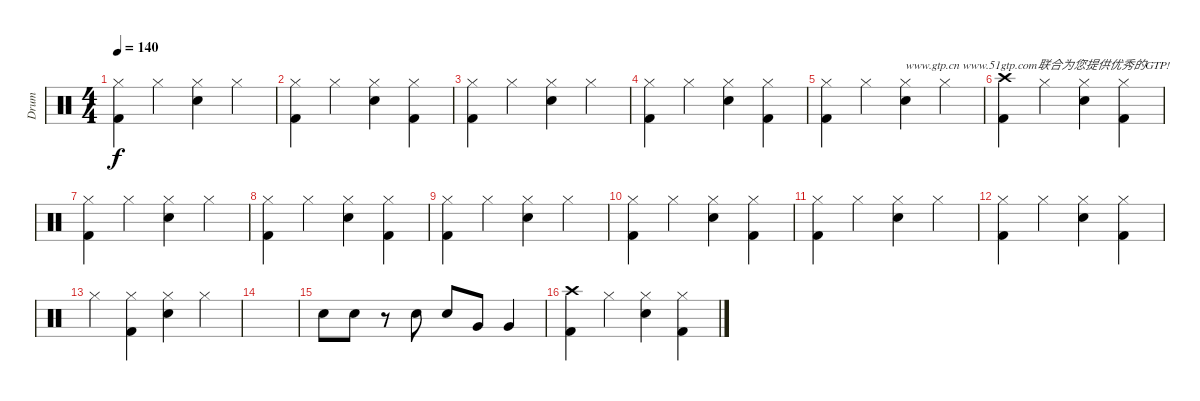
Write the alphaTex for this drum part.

\track ("Drum" "Drum") {instrument percussion}
\staff {score}
\articulation defaults
\ts (4 4)
\tempo 140
\clef neutral
\ks c
("Hi-Hat (closed)" "Kick (hit) 2").4{dy f} "Hi-Hat (closed)".4 ("Hi-Hat (closed)" "Electric Snare (hit)").4 "Hi-Hat (closed)".4 |
("Hi-Hat (closed)" "Kick (hit) 2").4 "Hi-Hat (closed)".4 ("Hi-Hat (closed)" "Electric Snare (hit)").4 ("Hi-Hat (closed)" "Kick (hit) 2").4 |
("Hi-Hat (closed)" "Kick (hit) 2").4 "Hi-Hat (closed)".4 ("Hi-Hat (closed)" "Electric Snare (hit)").4 "Hi-Hat (closed)".4 |
("Hi-Hat (closed)" "Kick (hit) 2").4 "Hi-Hat (closed)".4 ("Hi-Hat (closed)" "Electric Snare (hit)").4 ("Hi-Hat (closed)" "Kick (hit) 2").4 |
("Hi-Hat (closed)" "Kick (hit) 2").4 "Hi-Hat (closed)".4 ("Hi-Hat (closed)" "Electric Snare (hit)").4{txt "www.gtp.cn www.51gtp.com联合为您提供优秀的GTP!"} "Hi-Hat (closed)".4 |
("Crash high (hit)" "Kick (hit) 2").4 "Hi-Hat (closed)".4 ("Hi-Hat (closed)" "Electric Snare (hit)").4 ("Hi-Hat (closed)" "Kick (hit) 2").4 |
("Hi-Hat (closed)" "Kick (hit) 2").4 "Hi-Hat (closed)".4 ("Hi-Hat (closed)" "Electric Snare (hit)").4 "Hi-Hat (closed)".4 |
("Hi-Hat (closed)" "Kick (hit) 2").4 "Hi-Hat (closed)".4 ("Hi-Hat (closed)" "Electric Snare (hit)").4 ("Hi-Hat (closed)" "Kick (hit) 2").4 |
("Hi-Hat (closed)" "Kick (hit) 2").4 "Hi-Hat (closed)".4 ("Hi-Hat (closed)" "Electric Snare (hit)").4 "Hi-Hat (closed)".4 |
("Hi-Hat (closed)" "Kick (hit) 2").4 "Hi-Hat (closed)".4 ("Hi-Hat (closed)" "Electric Snare (hit)").4 ("Hi-Hat (closed)" "Kick (hit) 2").4 |
("Hi-Hat (closed)" "Kick (hit) 2").4 "Hi-Hat (closed)".4 ("Hi-Hat (closed)" "Electric Snare (hit)").4 "Hi-Hat (closed)".4 |
("Hi-Hat (closed)" "Kick (hit) 2").4 "Hi-Hat (closed)".4 ("Hi-Hat (closed)" "Electric Snare (hit)").4 ("Hi-Hat (closed)" "Kick (hit) 2").4 |
"Hi-Hat (closed)".4 ("Hi-Hat (closed)" "Kick (hit) 2").4 ("Hi-Hat (closed)" "Electric Snare (hit)").4 "Hi-Hat (closed)".4 |
|
"Electric Snare (hit)".8 "Electric Snare (hit)".8 r.8 "Electric Snare (hit)".8 "Electric Snare (hit)".8 "Very Low Tom (hit)".8 "Very Low Tom (hit)".4 |
("Crash high (hit)" "Kick (hit) 2").4 "Hi-Hat (closed)".4 ("Hi-Hat (closed)" "Electric Snare (hit)").4 ("Hi-Hat (closed)" "Kick (hit) 2").4
